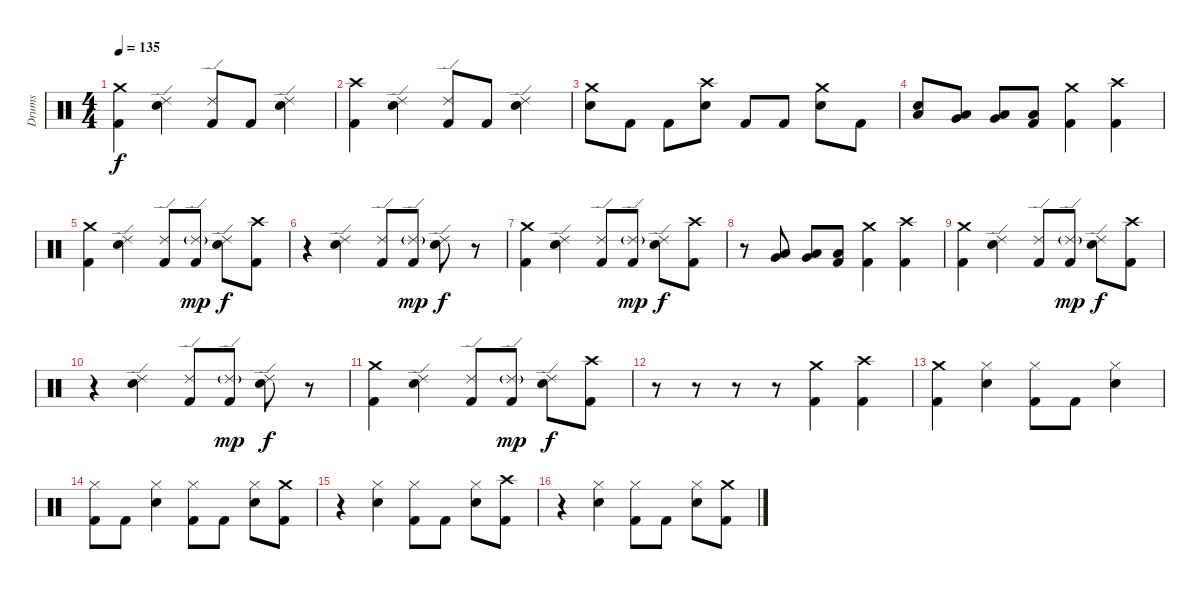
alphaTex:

\track ("Drums" "Drums") {instrument percussion}
\staff {score}
\articulation defaults
\ts (4 4)
\tempo 135
\clef neutral
\ks c
("Crash medium (hit)" "Kick (hit) 2").4{dy f} ("Electric Snare (hit)" "Ride (edge) 2").4 ("Ride (edge) 2" "Kick (hit) 2").8 "Kick (hit) 2".8 ("Electric Snare (hit)" "Ride (edge) 2").4 |
("Crash high (hit)" "Kick (hit) 2").4 ("Electric Snare (hit)" "Ride (edge) 2").4 ("Ride (edge) 2" "Kick (hit) 2").8 "Kick (hit) 2".8 ("Electric Snare (hit)" "Ride (edge) 2").4 |
("Crash medium (hit)" "Electric Snare (hit)").8 "Kick (hit) 2".8 "Kick (hit) 2".8 ("Electric Snare (hit)" "Crash high (hit)").8 "Kick (hit) 2".8 "Kick (hit) 2".8 ("Crash medium (hit)" "Electric Snare (hit)").8 "Kick (hit) 2".8 |
("Low Tom (hit)" "Electric Snare (hit)").8 ("Very Low Tom (hit)" "Low Tom (hit)").8 ("Low Floor Tom (hit)" "Very Low Tom (hit)").8 ("Kick (hit) 2" "Low Floor Tom (hit)").8 ("Crash medium (hit)" "Kick (hit) 2").4 ("Kick (hit) 2" "Crash high (hit)").4 |
("Kick (hit) 2" "Crash medium (hit)").4 ("Ride (edge) 2" "Electric Snare (hit)").4 ("Ride (edge) 2" "Kick (hit) 2").8 ("Ride (edge) 2"{g} "Kick (hit) 2").8{dy mp} ("Ride (edge) 2" "Electric Snare (hit)").8{dy f} ("Crash high (hit)" "Kick (hit) 2").8 |
r.4 ("Ride (edge) 2" "Electric Snare (hit)").4 ("Ride (edge) 2" "Kick (hit) 2").8 ("Ride (edge) 2"{g} "Kick (hit) 2").8{dy mp} ("Ride (edge) 2" "Electric Snare (hit)").8{dy f} r.8 |
("Crash medium (hit)" "Kick (hit) 2").4 ("Ride (edge) 2" "Electric Snare (hit)").4 ("Ride (edge) 2" "Kick (hit) 2").8 ("Ride (edge) 2"{g} "Kick (hit) 2").8{dy mp} ("Ride (edge) 2" "Electric Snare (hit)").8{dy f} ("Crash high (hit)" "Kick (hit) 2").8 |
r.8 ("Very Low Tom (hit)" "Low Tom (hit)").8 ("Low Floor Tom (hit)" "Very Low Tom (hit)").8 ("Kick (hit) 2" "Low Floor Tom (hit)").8 ("Crash medium (hit)" "Kick (hit) 2").4 ("Kick (hit) 2" "Crash high (hit)").4 |
("Kick (hit) 2" "Crash medium (hit)").4 ("Ride (edge) 2" "Electric Snare (hit)").4 ("Ride (edge) 2" "Kick (hit) 2").8 ("Ride (edge) 2"{g} "Kick (hit) 2").8{dy mp} ("Ride (edge) 2" "Electric Snare (hit)").8{dy f} ("Crash high (hit)" "Kick (hit) 2").8 |
r.4 ("Ride (edge) 2" "Electric Snare (hit)").4 ("Ride (edge) 2" "Kick (hit) 2").8 ("Ride (edge) 2"{g} "Kick (hit) 2").8{dy mp} ("Ride (edge) 2" "Electric Snare (hit)").8{dy f} r.8 |
("Crash medium (hit)" "Kick (hit) 2").4 ("Ride (edge) 2" "Electric Snare (hit)").4 ("Ride (edge) 2" "Kick (hit) 2").8 ("Ride (edge) 2"{g} "Kick (hit) 2").8{dy mp} ("Ride (edge) 2" "Electric Snare (hit)").8{dy f} ("Crash high (hit)" "Kick (hit) 2").8 |
r.8 r.8 r.8 r.8 ("Crash medium (hit)" "Kick (hit) 2").4 ("Kick (hit) 2" "Crash high (hit)").4 |
("Crash medium (hit)" "Kick (hit) 2").4 ("Electric Snare (hit)" "Hi-Hat (closed)").4 ("Hi-Hat (closed)" "Kick (hit) 2").8 "Kick (hit) 2".8 ("Hi-Hat (closed)" "Electric Snare (hit)").4 |
("Hi-Hat (closed)" "Kick (hit) 2").8 "Kick (hit) 2".8 ("Hi-Hat (closed)" "Electric Snare (hit)").4 ("Hi-Hat (closed)" "Kick (hit) 2").8 "Kick (hit) 2".8 ("Electric Snare (hit)" "Hi-Hat (closed)").8 ("Crash medium (hit)" "Kick (hit) 2").8 |
r.4 ("Hi-Hat (closed)" "Electric Snare (hit)").4 ("Hi-Hat (closed)" "Kick (hit) 2").8 "Kick (hit) 2".8 ("Hi-Hat (closed)" "Electric Snare (hit)").8 ("Crash high (hit)" "Kick (hit) 2").8 |
r.4 ("Hi-Hat (closed)" "Electric Snare (hit)").4 ("Hi-Hat (closed)" "Kick (hit) 2").8 "Kick (hit) 2".8 ("Hi-Hat (closed)" "Electric Snare (hit)").8 ("Crash medium (hit)" "Kick (hit) 2").8
